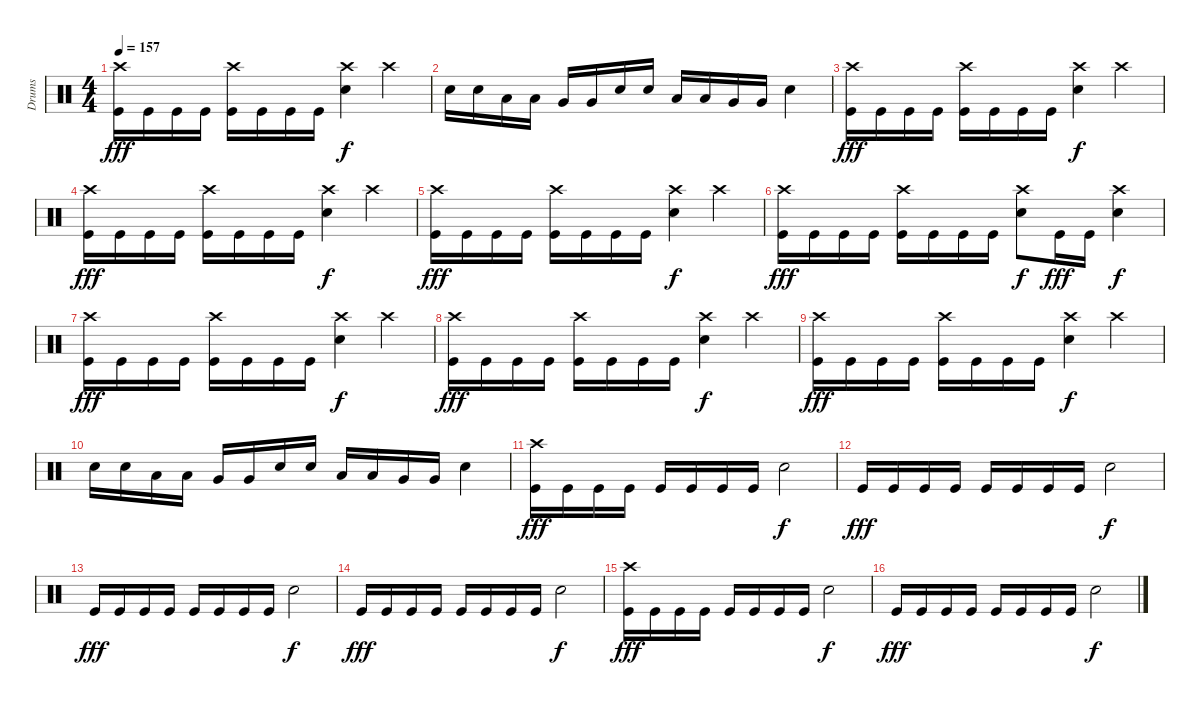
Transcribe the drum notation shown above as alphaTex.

\track ("Drums" "Drums") {instrument percussion}
\staff {score}
\articulation defaults
\ts (4 4)
\tempo 157
\clef neutral
\ks c
("Crash high (hit)" "Kick (hit)").16{dy fff} "Kick (hit)".16 "Kick (hit)".16 "Kick (hit)".16 ("Crash high (hit)" "Kick (hit)").16 "Kick (hit)".16 "Kick (hit)".16 "Kick (hit)".16 ("Crash high (hit)" "Snare (hit) 2").4{dy f} "Crash high (hit)".4 |
"Snare (hit) 2".16 "Snare (hit) 2".16 "Low Tom (hit)".16 "Low Tom (hit)".16 "Very Low Tom (hit)".16 "Very Low Tom (hit)".16 "Snare (hit) 2".16 "Snare (hit) 2".16 "Low Tom (hit)".16 "Low Tom (hit)".16 "Very Low Tom (hit)".16 "Very Low Tom (hit)".16 "Snare (hit) 2".4 |
("Crash high (hit)" "Kick (hit)").16{dy fff} "Kick (hit)".16 "Kick (hit)".16 "Kick (hit)".16 ("Crash high (hit)" "Kick (hit)").16 "Kick (hit)".16 "Kick (hit)".16 "Kick (hit)".16 ("Crash high (hit)" "Snare (hit) 2").4{dy f} "Crash high (hit)".4 |
("Crash high (hit)" "Kick (hit)").16{dy fff} "Kick (hit)".16 "Kick (hit)".16 "Kick (hit)".16 ("Crash high (hit)" "Kick (hit)").16 "Kick (hit)".16 "Kick (hit)".16 "Kick (hit)".16 ("Crash high (hit)" "Snare (hit) 2").4{dy f} "Crash high (hit)".4 |
("Crash high (hit)" "Kick (hit)").16{dy fff} "Kick (hit)".16 "Kick (hit)".16 "Kick (hit)".16 ("Crash high (hit)" "Kick (hit)").16 "Kick (hit)".16 "Kick (hit)".16 "Kick (hit)".16 ("Crash high (hit)" "Snare (hit) 2").4{dy f} "Crash high (hit)".4 |
("Crash high (hit)" "Kick (hit)").16{dy fff} "Kick (hit)".16 "Kick (hit)".16 "Kick (hit)".16 ("Crash high (hit)" "Kick (hit)").16 "Kick (hit)".16 "Kick (hit)".16 "Kick (hit)".16 ("Crash high (hit)" "Snare (hit) 2").8{dy f} "Kick (hit)".16{dy fff} "Kick (hit)".16 ("Crash high (hit)" "Snare (hit) 2").4{dy f} |
("Crash high (hit)" "Kick (hit)").16{dy fff} "Kick (hit)".16 "Kick (hit)".16 "Kick (hit)".16 ("Crash high (hit)" "Kick (hit)").16 "Kick (hit)".16 "Kick (hit)".16 "Kick (hit)".16 ("Crash high (hit)" "Snare (hit) 2").4{dy f} "Crash high (hit)".4 |
("Crash high (hit)" "Kick (hit)").16{dy fff} "Kick (hit)".16 "Kick (hit)".16 "Kick (hit)".16 ("Crash high (hit)" "Kick (hit)").16 "Kick (hit)".16 "Kick (hit)".16 "Kick (hit)".16 ("Crash high (hit)" "Snare (hit) 2").4{dy f} "Crash high (hit)".4 |
("Crash high (hit)" "Kick (hit)").16{dy fff} "Kick (hit)".16 "Kick (hit)".16 "Kick (hit)".16 ("Crash high (hit)" "Kick (hit)").16 "Kick (hit)".16 "Kick (hit)".16 "Kick (hit)".16 ("Crash high (hit)" "Snare (hit) 2").4{dy f} "Crash high (hit)".4 |
"Snare (hit) 2".16 "Snare (hit) 2".16 "Low Tom (hit)".16 "Low Tom (hit)".16 "Very Low Tom (hit)".16 "Very Low Tom (hit)".16 "Snare (hit) 2".16 "Snare (hit) 2".16 "Low Tom (hit)".16 "Low Tom (hit)".16 "Very Low Tom (hit)".16 "Very Low Tom (hit)".16 "Snare (hit) 2".4 |
("Crash high (hit)" "Kick (hit)").16{dy fff} "Kick (hit)".16 "Kick (hit)".16 "Kick (hit)".16 "Kick (hit)".16 "Kick (hit)".16 "Kick (hit)".16 "Kick (hit)".16 "Snare (hit) 2".2{dy f} |
"Kick (hit)".16{dy fff} "Kick (hit)".16 "Kick (hit)".16 "Kick (hit)".16 "Kick (hit)".16 "Kick (hit)".16 "Kick (hit)".16 "Kick (hit)".16 "Snare (hit) 2".2{dy f} |
"Kick (hit)".16{dy fff} "Kick (hit)".16 "Kick (hit)".16 "Kick (hit)".16 "Kick (hit)".16 "Kick (hit)".16 "Kick (hit)".16 "Kick (hit)".16 "Snare (hit) 2".2{dy f} |
"Kick (hit)".16{dy fff} "Kick (hit)".16 "Kick (hit)".16 "Kick (hit)".16 "Kick (hit)".16 "Kick (hit)".16 "Kick (hit)".16 "Kick (hit)".16 "Snare (hit) 2".2{dy f} |
("Crash high (hit)" "Kick (hit)").16{dy fff} "Kick (hit)".16 "Kick (hit)".16 "Kick (hit)".16 "Kick (hit)".16 "Kick (hit)".16 "Kick (hit)".16 "Kick (hit)".16 "Snare (hit) 2".2{dy f} |
"Kick (hit)".16{dy fff} "Kick (hit)".16 "Kick (hit)".16 "Kick (hit)".16 "Kick (hit)".16 "Kick (hit)".16 "Kick (hit)".16 "Kick (hit)".16 "Snare (hit) 2".2{dy f}
